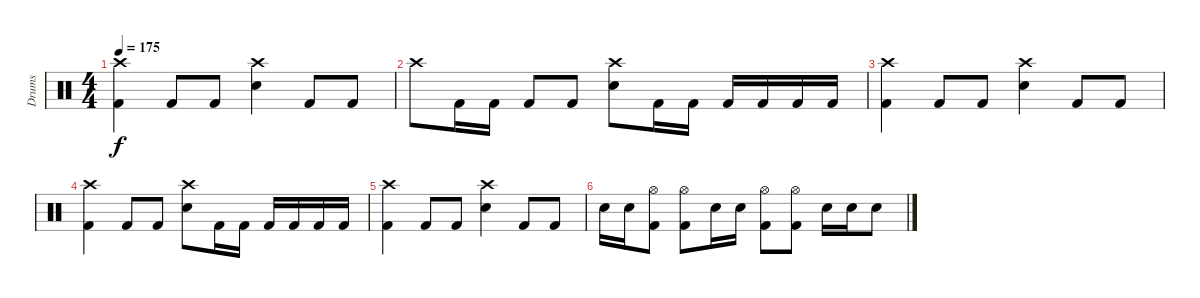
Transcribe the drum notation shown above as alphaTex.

\track ("Drums" "Drums") {instrument percussion}
\staff {score}
\articulation defaults
\ts (4 4)
\tempo 175
\clef neutral
\ks c
("Crash high (hit)" "Kick (hit) 2").4{dy f} "Kick (hit) 2".8 "Kick (hit) 2".8 ("Crash high (hit)" "Snare (hit) 2").4 "Kick (hit) 2".8 "Kick (hit) 2".8 |
"Crash high (hit)".8 "Kick (hit) 2".16 "Kick (hit) 2".16 "Kick (hit) 2".8 "Kick (hit) 2".8 ("Crash high (hit)" "Snare (hit) 2").8 "Kick (hit) 2".16 "Kick (hit) 2".16 "Kick (hit) 2".16 "Kick (hit) 2".16 "Kick (hit) 2".16 "Kick (hit) 2".16 |
("Crash high (hit)" "Kick (hit) 2").4 "Kick (hit) 2".8 "Kick (hit) 2".8 ("Crash high (hit)" "Snare (hit) 2").4 "Kick (hit) 2".8 "Kick (hit) 2".8 |
("Crash high (hit)" "Kick (hit) 2").4 "Kick (hit) 2".8 "Kick (hit) 2".8 ("Crash high (hit)" "Snare (hit) 2").8 "Kick (hit) 2".16 "Kick (hit) 2".16 "Kick (hit) 2".16 "Kick (hit) 2".16 "Kick (hit) 2".16 "Kick (hit) 2".16 |
("Crash high (hit)" "Kick (hit) 2").4 "Kick (hit) 2".8 "Kick (hit) 2".8 ("Crash high (hit)" "Snare (hit) 2").4 "Kick (hit) 2".8 "Kick (hit) 2".8 |
"Snare (hit) 2".16 "Snare (hit) 2".16 ("Hi-Hat (open)" "Kick (hit) 2").8 ("Hi-Hat (open)" "Kick (hit) 2").8 "Snare (hit) 2".16 "Snare (hit) 2".16 ("Hi-Hat (open)" "Kick (hit) 2").8 ("Hi-Hat (open)" "Kick (hit) 2").8 "Snare (hit) 2".16 "Snare (hit) 2".16 "Snare (hit) 2".8
